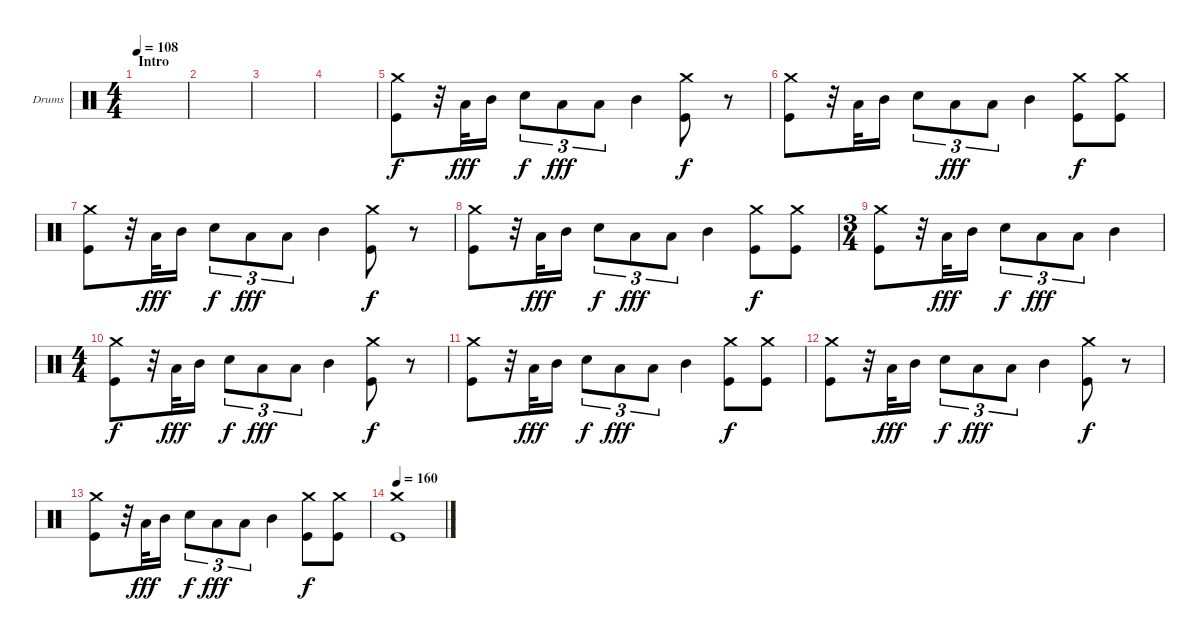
\bracketExtendMode groupsimilarinstruments
\firstSystemTrackNameOrientation horizontal
\otherSystemsTrackNameOrientation horizontal
\track ("Drums" "Drums") {instrument percussion}
\staff {score}
\articulation defaults
\ts (4 4)
\section ("" "Intro")
\tempo 108
\clef neutral
\ks c
|
|
|
|
("Crash medium (hit)" "Kick (hit)").8 r.32 "Low Tom (hit)".32{dy fff} "Mid Tom (hit)".16 "Snare (hit) 2".8{tu (3 2) dy f} "Low Tom (hit)".8{tu (3 2) dy fff} "Low Tom (hit)".8{tu (3 2)} "Mid Tom (hit)".4 ("Crash medium (hit)" "Kick (hit)").8{dy f} r.8 |
("Crash medium (hit)" "Kick (hit)").8 r.32 "Low Tom (hit)".32 "Mid Tom (hit)".16 "Snare (hit) 2".8{tu (3 2)} "Low Tom (hit)".8{tu (3 2) dy fff} "Low Tom (hit)".8{tu (3 2)} "Mid Tom (hit)".4 ("Crash medium (hit)" "Kick (hit)").8{dy f} ("Crash medium (hit)" "Kick (hit)").8 |
("Crash medium (hit)" "Kick (hit)").8 r.32 "Low Tom (hit)".32{dy fff} "Mid Tom (hit)".16 "Snare (hit) 2".8{tu (3 2) dy f} "Low Tom (hit)".8{tu (3 2) dy fff} "Low Tom (hit)".8{tu (3 2)} "Mid Tom (hit)".4 ("Crash medium (hit)" "Kick (hit)").8{dy f} r.8 |
("Crash medium (hit)" "Kick (hit)").8 r.32 "Low Tom (hit)".32{dy fff} "Mid Tom (hit)".16 "Snare (hit) 2".8{tu (3 2) dy f} "Low Tom (hit)".8{tu (3 2) dy fff} "Low Tom (hit)".8{tu (3 2)} "Mid Tom (hit)".4 ("Crash medium (hit)" "Kick (hit)").8{dy f} ("Crash medium (hit)" "Kick (hit)").8 |
\ts (3 4)
("Crash medium (hit)" "Kick (hit)").8 r.32 "Low Tom (hit)".32{dy fff} "Mid Tom (hit)".16 "Snare (hit) 2".8{tu (3 2) dy f} "Low Tom (hit)".8{tu (3 2) dy fff} "Low Tom (hit)".8{tu (3 2)} "Mid Tom (hit)".4 |
\ts (4 4)
("Crash medium (hit)" "Kick (hit)").8{dy f} r.32 "Low Tom (hit)".32{dy fff} "Mid Tom (hit)".16 "Snare (hit) 2".8{tu (3 2) dy f} "Low Tom (hit)".8{tu (3 2) dy fff} "Low Tom (hit)".8{tu (3 2)} "Mid Tom (hit)".4 ("Crash medium (hit)" "Kick (hit)").8{dy f} r.8 |
("Crash medium (hit)" "Kick (hit)").8 r.32 "Low Tom (hit)".32{dy fff} "Mid Tom (hit)".16 "Snare (hit) 2".8{tu (3 2) dy f} "Low Tom (hit)".8{tu (3 2) dy fff} "Low Tom (hit)".8{tu (3 2)} "Mid Tom (hit)".4 ("Crash medium (hit)" "Kick (hit)").8{dy f} ("Crash medium (hit)" "Kick (hit)").8 |
("Crash medium (hit)" "Kick (hit)").8 r.32 "Low Tom (hit)".32{dy fff} "Mid Tom (hit)".16 "Snare (hit) 2".8{tu (3 2) dy f} "Low Tom (hit)".8{tu (3 2) dy fff} "Low Tom (hit)".8{tu (3 2)} "Mid Tom (hit)".4 ("Crash medium (hit)" "Kick (hit)").8{dy f} r.8 |
("Crash medium (hit)" "Kick (hit)").8 r.32 "Low Tom (hit)".32{dy fff} "Mid Tom (hit)".16 "Snare (hit) 2".8{tu (3 2) dy f} "Low Tom (hit)".8{tu (3 2) dy fff} "Low Tom (hit)".8{tu (3 2)} "Mid Tom (hit)".4 ("Crash medium (hit)" "Kick (hit)").8{dy f} ("Crash medium (hit)" "Kick (hit)").8 |
\tempo 160
("Crash medium (hit)" "Kick (hit)").1
